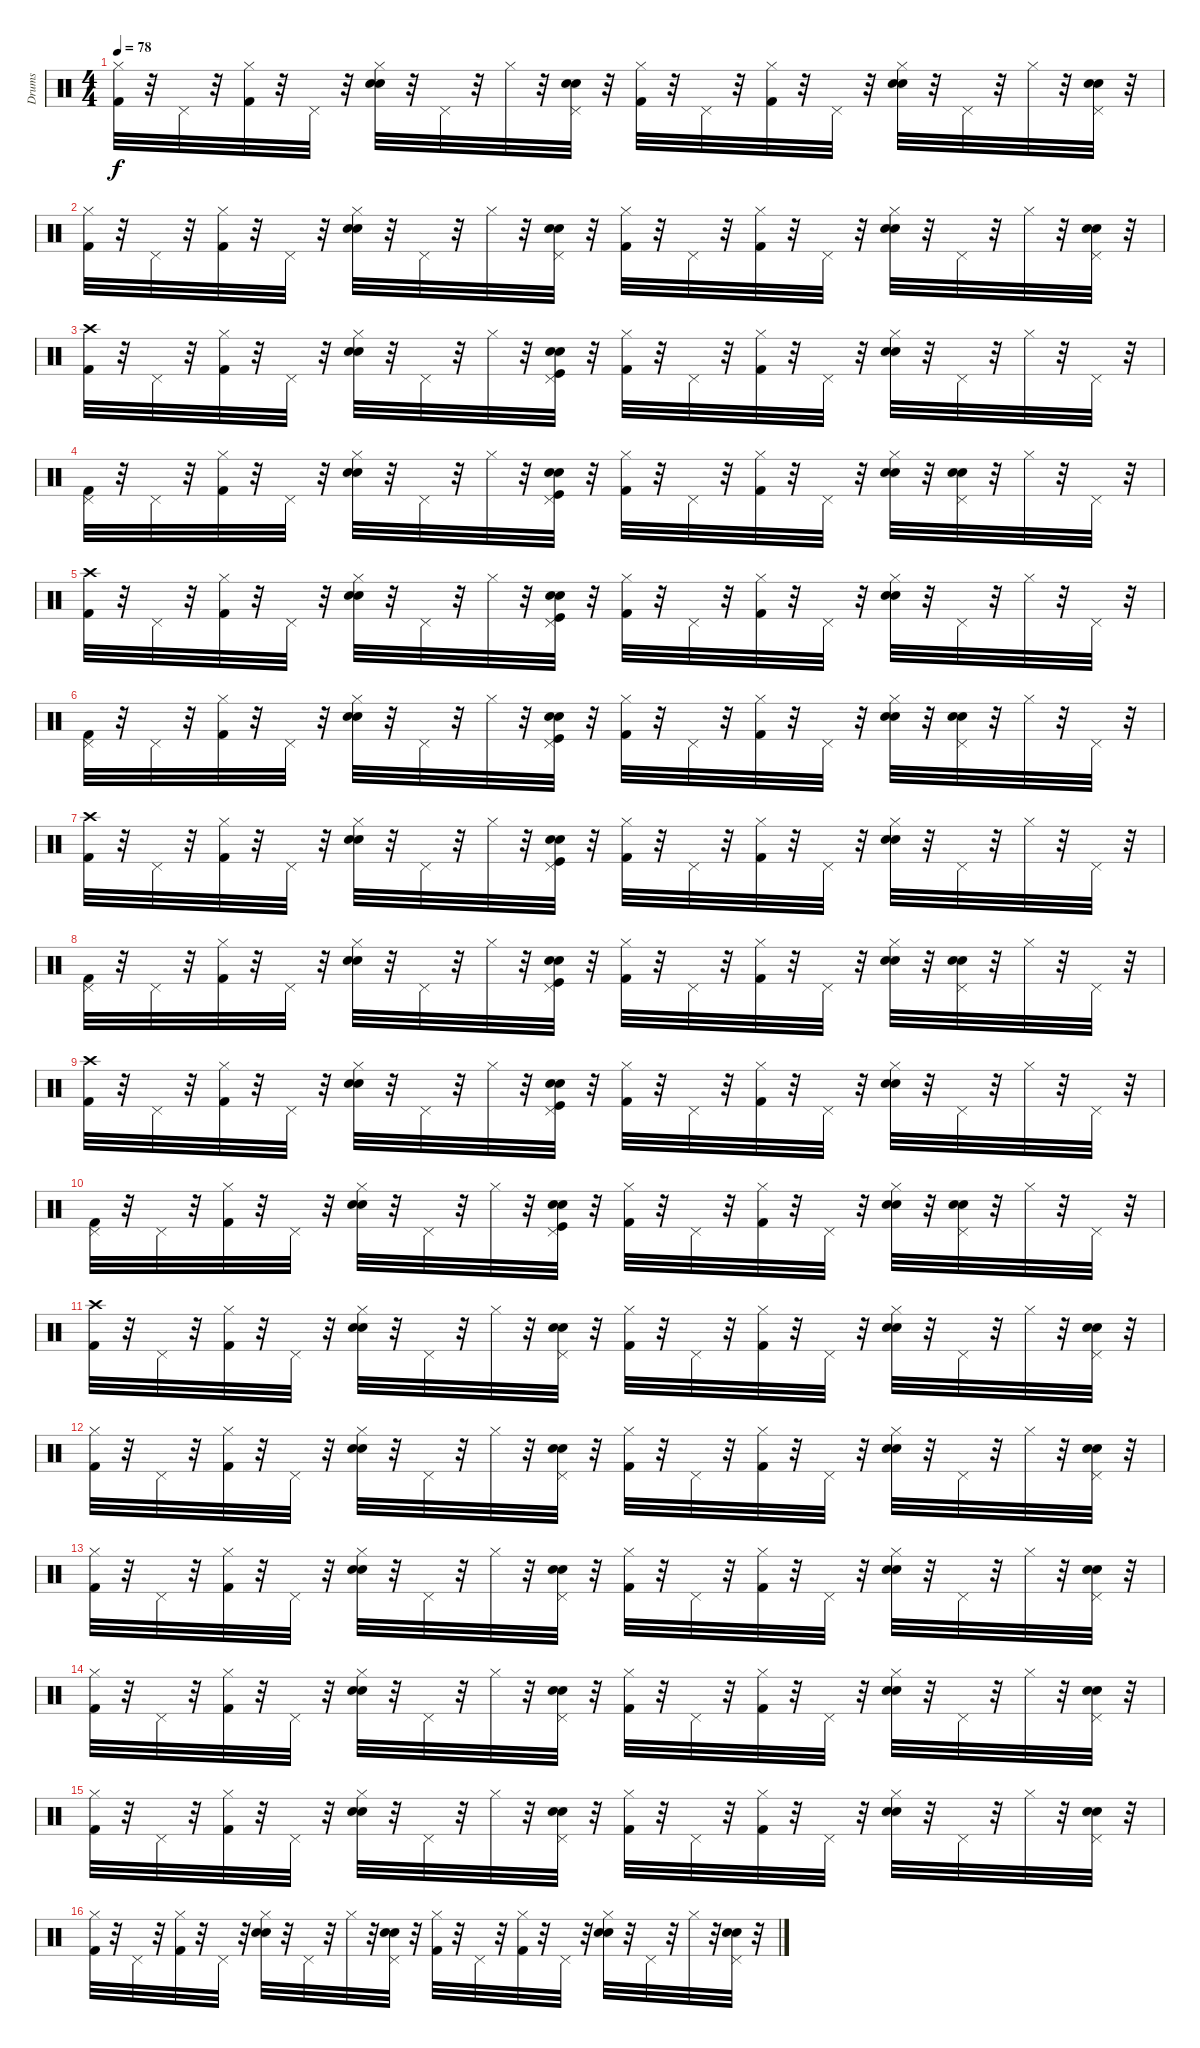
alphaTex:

\track ("Drums" "Drums") {instrument percussion}
\staff {score}
\articulation defaults
\ts (4 4)
\tempo 78
\clef neutral
\ks c
("Hi-Hat (closed)" "Kick (hit) 2").32{dy f} r.32 "Pedal Hi-Hat (hit)".32 r.32 ("Kick (hit) 2" "Hi-Hat (closed)").32 r.32 "Pedal Hi-Hat (hit)".32 r.32 ("Snare (hit) 2" "Electric Snare (hit)" "Hi-Hat (closed)").32 r.32 "Pedal Hi-Hat (hit)".32 r.32 "Hi-Hat (closed)".32 r.32 ("Snare (hit) 2" "Electric Snare (hit)" "Pedal Hi-Hat (hit)").32 r.32 ("Kick (hit) 2" "Hi-Hat (closed)").32 r.32 "Pedal Hi-Hat (hit)".32 r.32 ("Kick (hit) 2" "Hi-Hat (closed)").32 r.32 "Pedal Hi-Hat (hit)".32 r.32 ("Electric Snare (hit)" "Snare (hit) 2" "Hi-Hat (closed)").32 r.32 "Pedal Hi-Hat (hit)".32 r.32 "Hi-Hat (closed)".32 r.32 ("Pedal Hi-Hat (hit)" "Snare (hit) 2" "Electric Snare (hit)").32 r.32 |
("Hi-Hat (closed)" "Kick (hit) 2").32 r.32 "Pedal Hi-Hat (hit)".32 r.32 ("Kick (hit) 2" "Hi-Hat (closed)").32 r.32 "Pedal Hi-Hat (hit)".32 r.32 ("Snare (hit) 2" "Electric Snare (hit)" "Hi-Hat (closed)").32 r.32 "Pedal Hi-Hat (hit)".32 r.32 "Hi-Hat (closed)".32 r.32 ("Snare (hit) 2" "Electric Snare (hit)" "Pedal Hi-Hat (hit)").32 r.32 ("Kick (hit) 2" "Hi-Hat (closed)").32 r.32 "Pedal Hi-Hat (hit)".32 r.32 ("Kick (hit) 2" "Hi-Hat (closed)").32 r.32 "Pedal Hi-Hat (hit)".32 r.32 ("Electric Snare (hit)" "Snare (hit) 2" "Hi-Hat (closed)").32 r.32 "Pedal Hi-Hat (hit)".32 r.32 "Hi-Hat (closed)".32 r.32 ("Pedal Hi-Hat (hit)" "Snare (hit) 2" "Electric Snare (hit)").32 r.32 |
("Crash high (hit)" "Kick (hit) 2").32 r.32 "Pedal Hi-Hat (hit)".32 r.32 ("Hi-Hat (closed)" "Kick (hit) 2").32 r.32 "Pedal Hi-Hat (hit)".32 r.32 ("Hi-Hat (closed)" "Hand Clap (hit)" "Electric Snare (hit)").32 r.32 "Pedal Hi-Hat (hit)".32 r.32 "Hi-Hat (closed)".32 r.32 ("Hand Clap (hit)" "Electric Snare (hit)" "Pedal Hi-Hat (hit)" "Kick (hit)").32 r.32 ("Hi-Hat (closed)" "Kick (hit) 2").32 r.32 "Pedal Hi-Hat (hit)".32 r.32 ("Hi-Hat (closed)" "Kick (hit) 2").32 r.32 "Pedal Hi-Hat (hit)".32 r.32 ("Hi-Hat (closed)" "Hand Clap (hit)" "Electric Snare (hit)").32 r.32 "Pedal Hi-Hat (hit)".32 r.32 "Hi-Hat (closed)".32 r.32 "Pedal Hi-Hat (hit)".32 r.32 |
("Pedal Hi-Hat (hit)" "Kick (hit) 2").32 r.32 "Pedal Hi-Hat (hit)".32 r.32 ("Hi-Hat (closed)" "Kick (hit) 2").32 r.32 "Pedal Hi-Hat (hit)".32 r.32 ("Hi-Hat (closed)" "Hand Clap (hit)" "Electric Snare (hit)").32 r.32 "Pedal Hi-Hat (hit)".32 r.32 "Hi-Hat (closed)".32 r.32 ("Hand Clap (hit)" "Electric Snare (hit)" "Pedal Hi-Hat (hit)" "Kick (hit)").32 r.32 ("Hi-Hat (closed)" "Kick (hit) 2").32 r.32 "Pedal Hi-Hat (hit)".32 r.32 ("Hi-Hat (closed)" "Kick (hit) 2").32 r.32 "Pedal Hi-Hat (hit)".32 r.32 ("Hi-Hat (closed)" "Hand Clap (hit)" "Electric Snare (hit)").32 r.32 ("Hand Clap (hit)" "Electric Snare (hit)" "Pedal Hi-Hat (hit)").32 r.32 "Hi-Hat (closed)".32 r.32 "Pedal Hi-Hat (hit)".32 r.32 |
("Crash high (hit)" "Kick (hit) 2").32 r.32 "Pedal Hi-Hat (hit)".32 r.32 ("Hi-Hat (closed)" "Kick (hit) 2").32 r.32 "Pedal Hi-Hat (hit)".32 r.32 ("Hi-Hat (closed)" "Hand Clap (hit)" "Electric Snare (hit)").32 r.32 "Pedal Hi-Hat (hit)".32 r.32 "Hi-Hat (closed)".32 r.32 ("Hand Clap (hit)" "Electric Snare (hit)" "Pedal Hi-Hat (hit)" "Kick (hit)").32 r.32 ("Hi-Hat (closed)" "Kick (hit) 2").32 r.32 "Pedal Hi-Hat (hit)".32 r.32 ("Hi-Hat (closed)" "Kick (hit) 2").32 r.32 "Pedal Hi-Hat (hit)".32 r.32 ("Hi-Hat (closed)" "Hand Clap (hit)" "Electric Snare (hit)").32 r.32 "Pedal Hi-Hat (hit)".32 r.32 "Hi-Hat (closed)".32 r.32 "Pedal Hi-Hat (hit)".32 r.32 |
("Pedal Hi-Hat (hit)" "Kick (hit) 2").32 r.32 "Pedal Hi-Hat (hit)".32 r.32 ("Hi-Hat (closed)" "Kick (hit) 2").32 r.32 "Pedal Hi-Hat (hit)".32 r.32 ("Hi-Hat (closed)" "Hand Clap (hit)" "Electric Snare (hit)").32 r.32 "Pedal Hi-Hat (hit)".32 r.32 "Hi-Hat (closed)".32 r.32 ("Hand Clap (hit)" "Electric Snare (hit)" "Pedal Hi-Hat (hit)" "Kick (hit)").32 r.32 ("Hi-Hat (closed)" "Kick (hit) 2").32 r.32 "Pedal Hi-Hat (hit)".32 r.32 ("Hi-Hat (closed)" "Kick (hit) 2").32 r.32 "Pedal Hi-Hat (hit)".32 r.32 ("Hi-Hat (closed)" "Hand Clap (hit)" "Electric Snare (hit)").32 r.32 ("Hand Clap (hit)" "Electric Snare (hit)" "Pedal Hi-Hat (hit)").32 r.32 "Hi-Hat (closed)".32 r.32 "Pedal Hi-Hat (hit)".32 r.32 |
("Crash high (hit)" "Kick (hit) 2").32 r.32 "Pedal Hi-Hat (hit)".32 r.32 ("Hi-Hat (closed)" "Kick (hit) 2").32 r.32 "Pedal Hi-Hat (hit)".32 r.32 ("Hi-Hat (closed)" "Hand Clap (hit)" "Electric Snare (hit)").32 r.32 "Pedal Hi-Hat (hit)".32 r.32 "Hi-Hat (closed)".32 r.32 ("Hand Clap (hit)" "Electric Snare (hit)" "Pedal Hi-Hat (hit)" "Kick (hit)").32 r.32 ("Hi-Hat (closed)" "Kick (hit) 2").32 r.32 "Pedal Hi-Hat (hit)".32 r.32 ("Hi-Hat (closed)" "Kick (hit) 2").32 r.32 "Pedal Hi-Hat (hit)".32 r.32 ("Hi-Hat (closed)" "Hand Clap (hit)" "Electric Snare (hit)").32 r.32 "Pedal Hi-Hat (hit)".32 r.32 "Hi-Hat (closed)".32 r.32 "Pedal Hi-Hat (hit)".32 r.32 |
("Pedal Hi-Hat (hit)" "Kick (hit) 2").32 r.32 "Pedal Hi-Hat (hit)".32 r.32 ("Hi-Hat (closed)" "Kick (hit) 2").32 r.32 "Pedal Hi-Hat (hit)".32 r.32 ("Hi-Hat (closed)" "Hand Clap (hit)" "Electric Snare (hit)").32 r.32 "Pedal Hi-Hat (hit)".32 r.32 "Hi-Hat (closed)".32 r.32 ("Hand Clap (hit)" "Electric Snare (hit)" "Pedal Hi-Hat (hit)" "Kick (hit)").32 r.32 ("Hi-Hat (closed)" "Kick (hit) 2").32 r.32 "Pedal Hi-Hat (hit)".32 r.32 ("Hi-Hat (closed)" "Kick (hit) 2").32 r.32 "Pedal Hi-Hat (hit)".32 r.32 ("Hi-Hat (closed)" "Hand Clap (hit)" "Electric Snare (hit)").32 r.32 ("Hand Clap (hit)" "Electric Snare (hit)" "Pedal Hi-Hat (hit)").32 r.32 "Hi-Hat (closed)".32 r.32 "Pedal Hi-Hat (hit)".32 r.32 |
("Crash high (hit)" "Kick (hit) 2").32 r.32 "Pedal Hi-Hat (hit)".32 r.32 ("Hi-Hat (closed)" "Kick (hit) 2").32 r.32 "Pedal Hi-Hat (hit)".32 r.32 ("Hi-Hat (closed)" "Hand Clap (hit)" "Electric Snare (hit)").32 r.32 "Pedal Hi-Hat (hit)".32 r.32 "Hi-Hat (closed)".32 r.32 ("Hand Clap (hit)" "Electric Snare (hit)" "Pedal Hi-Hat (hit)" "Kick (hit)").32 r.32 ("Hi-Hat (closed)" "Kick (hit) 2").32 r.32 "Pedal Hi-Hat (hit)".32 r.32 ("Hi-Hat (closed)" "Kick (hit) 2").32 r.32 "Pedal Hi-Hat (hit)".32 r.32 ("Hi-Hat (closed)" "Hand Clap (hit)" "Electric Snare (hit)").32 r.32 "Pedal Hi-Hat (hit)".32 r.32 "Hi-Hat (closed)".32 r.32 "Pedal Hi-Hat (hit)".32 r.32 |
("Pedal Hi-Hat (hit)" "Kick (hit) 2").32 r.32 "Pedal Hi-Hat (hit)".32 r.32 ("Hi-Hat (closed)" "Kick (hit) 2").32 r.32 "Pedal Hi-Hat (hit)".32 r.32 ("Hi-Hat (closed)" "Hand Clap (hit)" "Electric Snare (hit)").32 r.32 "Pedal Hi-Hat (hit)".32 r.32 "Hi-Hat (closed)".32 r.32 ("Hand Clap (hit)" "Electric Snare (hit)" "Pedal Hi-Hat (hit)" "Kick (hit)").32 r.32 ("Hi-Hat (closed)" "Kick (hit) 2").32 r.32 "Pedal Hi-Hat (hit)".32 r.32 ("Hi-Hat (closed)" "Kick (hit) 2").32 r.32 "Pedal Hi-Hat (hit)".32 r.32 ("Hi-Hat (closed)" "Hand Clap (hit)" "Electric Snare (hit)").32 r.32 ("Hand Clap (hit)" "Electric Snare (hit)" "Pedal Hi-Hat (hit)").32 r.32 "Hi-Hat (closed)".32 r.32 "Pedal Hi-Hat (hit)".32 r.32 |
("Kick (hit) 2" "Crash high (hit)").32 r.32 "Pedal Hi-Hat (hit)".32 r.32 ("Kick (hit) 2" "Hi-Hat (closed)").32 r.32 "Pedal Hi-Hat (hit)".32 r.32 ("Snare (hit) 2" "Electric Snare (hit)" "Hi-Hat (closed)").32 r.32 "Pedal Hi-Hat (hit)".32 r.32 "Hi-Hat (closed)".32 r.32 ("Snare (hit) 2" "Electric Snare (hit)" "Pedal Hi-Hat (hit)").32 r.32 ("Kick (hit) 2" "Hi-Hat (closed)").32 r.32 "Pedal Hi-Hat (hit)".32 r.32 ("Kick (hit) 2" "Hi-Hat (closed)").32 r.32 "Pedal Hi-Hat (hit)".32 r.32 ("Electric Snare (hit)" "Snare (hit) 2" "Hi-Hat (closed)").32 r.32 "Pedal Hi-Hat (hit)".32 r.32 "Hi-Hat (closed)".32 r.32 ("Pedal Hi-Hat (hit)" "Snare (hit) 2" "Electric Snare (hit)").32 r.32 |
("Hi-Hat (closed)" "Kick (hit) 2").32 r.32 "Pedal Hi-Hat (hit)".32 r.32 ("Kick (hit) 2" "Hi-Hat (closed)").32 r.32 "Pedal Hi-Hat (hit)".32 r.32 ("Snare (hit) 2" "Electric Snare (hit)" "Hi-Hat (closed)").32 r.32 "Pedal Hi-Hat (hit)".32 r.32 "Hi-Hat (closed)".32 r.32 ("Snare (hit) 2" "Electric Snare (hit)" "Pedal Hi-Hat (hit)").32 r.32 ("Kick (hit) 2" "Hi-Hat (closed)").32 r.32 "Pedal Hi-Hat (hit)".32 r.32 ("Kick (hit) 2" "Hi-Hat (closed)").32 r.32 "Pedal Hi-Hat (hit)".32 r.32 ("Electric Snare (hit)" "Snare (hit) 2" "Hi-Hat (closed)").32 r.32 "Pedal Hi-Hat (hit)".32 r.32 "Hi-Hat (closed)".32 r.32 ("Pedal Hi-Hat (hit)" "Snare (hit) 2" "Electric Snare (hit)").32 r.32 |
("Hi-Hat (closed)" "Kick (hit) 2").32 r.32 "Pedal Hi-Hat (hit)".32 r.32 ("Kick (hit) 2" "Hi-Hat (closed)").32 r.32 "Pedal Hi-Hat (hit)".32 r.32 ("Snare (hit) 2" "Electric Snare (hit)" "Hi-Hat (closed)").32 r.32 "Pedal Hi-Hat (hit)".32 r.32 "Hi-Hat (closed)".32 r.32 ("Snare (hit) 2" "Electric Snare (hit)" "Pedal Hi-Hat (hit)").32 r.32 ("Kick (hit) 2" "Hi-Hat (closed)").32 r.32 "Pedal Hi-Hat (hit)".32 r.32 ("Kick (hit) 2" "Hi-Hat (closed)").32 r.32 "Pedal Hi-Hat (hit)".32 r.32 ("Electric Snare (hit)" "Snare (hit) 2" "Hi-Hat (closed)").32 r.32 "Pedal Hi-Hat (hit)".32 r.32 "Hi-Hat (closed)".32 r.32 ("Pedal Hi-Hat (hit)" "Snare (hit) 2" "Electric Snare (hit)").32 r.32 |
("Hi-Hat (closed)" "Kick (hit) 2").32 r.32 "Pedal Hi-Hat (hit)".32 r.32 ("Kick (hit) 2" "Hi-Hat (closed)").32 r.32 "Pedal Hi-Hat (hit)".32 r.32 ("Snare (hit) 2" "Electric Snare (hit)" "Hi-Hat (closed)").32 r.32 "Pedal Hi-Hat (hit)".32 r.32 "Hi-Hat (closed)".32 r.32 ("Snare (hit) 2" "Electric Snare (hit)" "Pedal Hi-Hat (hit)").32 r.32 ("Kick (hit) 2" "Hi-Hat (closed)").32 r.32 "Pedal Hi-Hat (hit)".32 r.32 ("Kick (hit) 2" "Hi-Hat (closed)").32 r.32 "Pedal Hi-Hat (hit)".32 r.32 ("Electric Snare (hit)" "Snare (hit) 2" "Hi-Hat (closed)").32 r.32 "Pedal Hi-Hat (hit)".32 r.32 "Hi-Hat (closed)".32 r.32 ("Pedal Hi-Hat (hit)" "Snare (hit) 2" "Electric Snare (hit)").32 r.32 |
("Hi-Hat (closed)" "Kick (hit) 2").32 r.32 "Pedal Hi-Hat (hit)".32 r.32 ("Kick (hit) 2" "Hi-Hat (closed)").32 r.32 "Pedal Hi-Hat (hit)".32 r.32 ("Snare (hit) 2" "Electric Snare (hit)" "Hi-Hat (closed)").32 r.32 "Pedal Hi-Hat (hit)".32 r.32 "Hi-Hat (closed)".32 r.32 ("Snare (hit) 2" "Electric Snare (hit)" "Pedal Hi-Hat (hit)").32 r.32 ("Kick (hit) 2" "Hi-Hat (closed)").32 r.32 "Pedal Hi-Hat (hit)".32 r.32 ("Kick (hit) 2" "Hi-Hat (closed)").32 r.32 "Pedal Hi-Hat (hit)".32 r.32 ("Electric Snare (hit)" "Snare (hit) 2" "Hi-Hat (closed)").32 r.32 "Pedal Hi-Hat (hit)".32 r.32 "Hi-Hat (closed)".32 r.32 ("Pedal Hi-Hat (hit)" "Snare (hit) 2" "Electric Snare (hit)").32 r.32 |
("Hi-Hat (closed)" "Kick (hit) 2").32 r.32 "Pedal Hi-Hat (hit)".32 r.32 ("Kick (hit) 2" "Hi-Hat (closed)").32 r.32 "Pedal Hi-Hat (hit)".32 r.32 ("Snare (hit) 2" "Electric Snare (hit)" "Hi-Hat (closed)").32 r.32 "Pedal Hi-Hat (hit)".32 r.32 "Hi-Hat (closed)".32 r.32 ("Snare (hit) 2" "Electric Snare (hit)" "Pedal Hi-Hat (hit)").32 r.32 ("Kick (hit) 2" "Hi-Hat (closed)").32 r.32 "Pedal Hi-Hat (hit)".32 r.32 ("Kick (hit) 2" "Hi-Hat (closed)").32 r.32 "Pedal Hi-Hat (hit)".32 r.32 ("Electric Snare (hit)" "Snare (hit) 2" "Hi-Hat (closed)").32 r.32 "Pedal Hi-Hat (hit)".32 r.32 "Hi-Hat (closed)".32 r.32 ("Pedal Hi-Hat (hit)" "Snare (hit) 2" "Electric Snare (hit)").32 r.32
